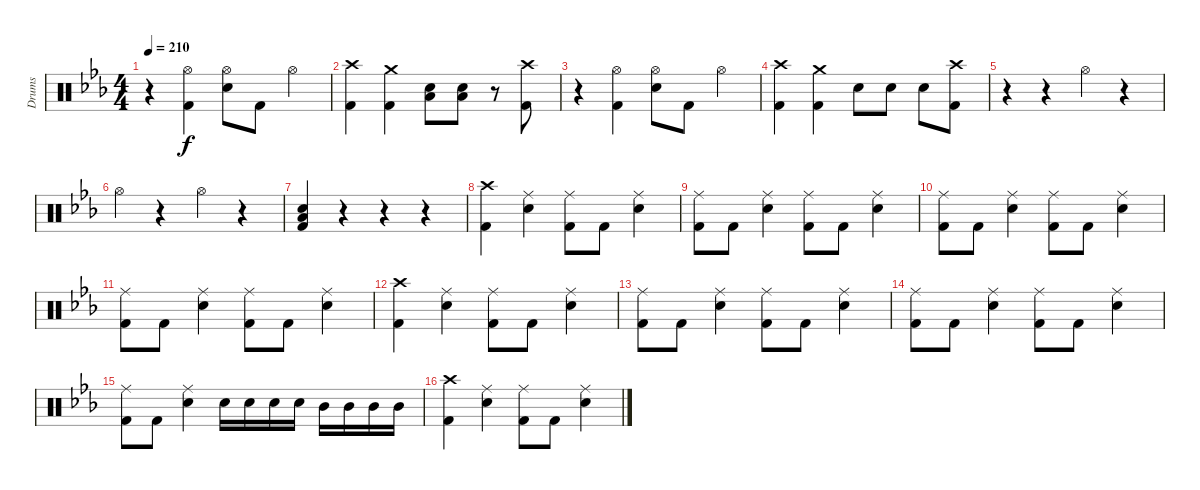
\track ("Drums" "Drums") {instrument percussion}
\staff {score}
\articulation defaults
\ts (4 4)
\tempo 210
\clef neutral
\ks cminor
r.4{dy f} ("Kick (hit) 2" "Hi-Hat (open)").4 ("Hi-Hat (open)" "Snare (hit) 2").8 "Kick (hit) 2".8 "Hi-Hat (open)".4 |
("Kick (hit) 2" "Crash high (hit)").4 ("Crash medium (hit)" "Kick (hit) 2").4 ("Snare (hit) 2" "Low Tom (hit)").8 ("Snare (hit) 2" "Low Tom (hit)").8 r.8 ("Crash high (hit)" "Kick (hit) 2").8 |
r.4 ("Kick (hit) 2" "Hi-Hat (open)").4 ("Hi-Hat (open)" "Snare (hit) 2").8 "Kick (hit) 2".8 "Hi-Hat (open)".4 |
("Kick (hit) 2" "Crash high (hit)").4 ("Crash medium (hit)" "Kick (hit) 2").4 "Snare (hit) 2".8 "Snare (hit) 2".8 "Snare (hit) 2".8 ("Crash high (hit)" "Kick (hit) 2").8 |
r.4 r.4 "Hi-Hat (open)".4 r.4 |
"Hi-Hat (open)".4 r.4 "Hi-Hat (open)".4 r.4 |
("Low Tom (hit)" "Snare (hit) 2" "Kick (hit) 2").4 r.4 r.4 r.4 |
("Crash high (hit)" "Kick (hit) 2").4 ("Snare (hit) 2" "Ride (middle)").4 ("Ride (middle)" "Kick (hit) 2").8 "Kick (hit) 2".8 ("Snare (hit) 2" "Ride (middle)").4 |
("Ride (middle)" "Kick (hit) 2").8 "Kick (hit) 2".8 ("Ride (middle)" "Snare (hit) 2").4 ("Ride (middle)" "Kick (hit) 2").8 "Kick (hit) 2".8 ("Ride (middle)" "Snare (hit) 2").4 |
("Ride (middle)" "Kick (hit) 2").8 "Kick (hit) 2".8 ("Ride (middle)" "Snare (hit) 2").4 ("Ride (middle)" "Kick (hit) 2").8 "Kick (hit) 2".8 ("Ride (middle)" "Snare (hit) 2").4 |
("Ride (middle)" "Kick (hit) 2").8 "Kick (hit) 2".8 ("Ride (middle)" "Snare (hit) 2").4 ("Ride (middle)" "Kick (hit) 2").8 "Kick (hit) 2".8 ("Ride (middle)" "Snare (hit) 2").4 |
("Crash high (hit)" "Kick (hit) 2").4 ("Snare (hit) 2" "Ride (middle)").4 ("Ride (middle)" "Kick (hit) 2").8 "Kick (hit) 2".8 ("Snare (hit) 2" "Ride (middle)").4 |
("Ride (middle)" "Kick (hit) 2").8 "Kick (hit) 2".8 ("Ride (middle)" "Snare (hit) 2").4 ("Ride (middle)" "Kick (hit) 2").8 "Kick (hit) 2".8 ("Ride (middle)" "Snare (hit) 2").4 |
("Ride (middle)" "Kick (hit) 2").8 "Kick (hit) 2".8 ("Ride (middle)" "Snare (hit) 2").4 ("Ride (middle)" "Kick (hit) 2").8 "Kick (hit) 2".8 ("Ride (middle)" "Snare (hit) 2").4 |
("Ride (middle)" "Kick (hit) 2").8 "Kick (hit) 2".8 ("Ride (middle)" "Snare (hit) 2").4 "Snare (hit) 2".16 "Snare (hit) 2".16 "Snare (hit) 2".16 "Snare (hit) 2".16 "Mid Tom (hit)".16 "Mid Tom (hit)".16 "Mid Tom (hit)".16 "Mid Tom (hit)".16 |
("Crash high (hit)" "Kick (hit) 2").4 ("Snare (hit) 2" "Ride (middle)").4 ("Ride (middle)" "Kick (hit) 2").8 "Kick (hit) 2".8 ("Snare (hit) 2" "Ride (middle)").4
